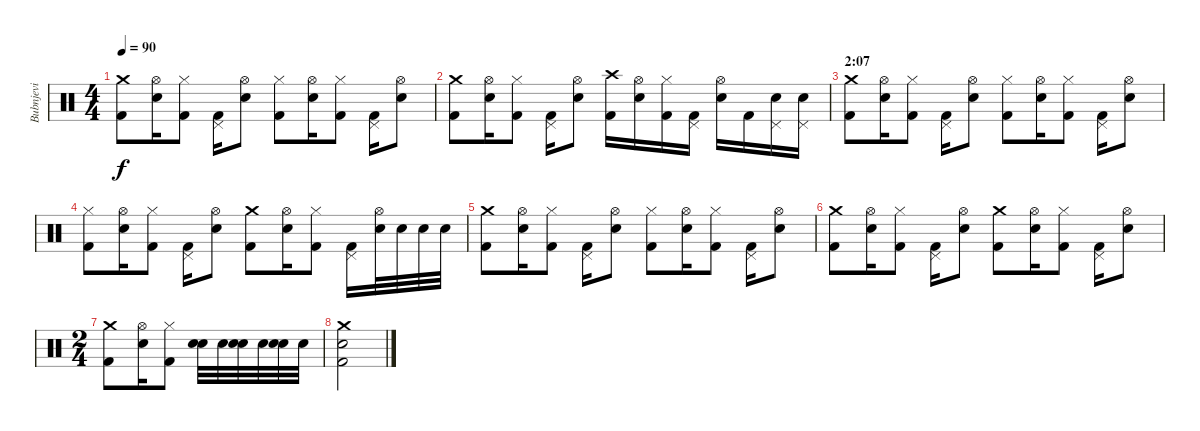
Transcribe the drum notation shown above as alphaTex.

\track ("Bubnjevi" "Bubnjevi") {instrument percussion}
\staff {score}
\articulation defaults
\ts (4 4)
\tempo 90
\clef neutral
\ks c
("Crash medium (hit)" "Kick (hit) 2").8{dy f} ("Hi-Hat (open)" "Snare (hit) 2").16 ("Hi-Hat (closed)" "Kick (hit) 2").8 ("Pedal Hi-Hat (hit)" "Kick (hit) 2").16 ("Hi-Hat (open)" "Snare (hit) 2").8 ("Hi-Hat (closed)" "Kick (hit) 2").8 ("Hi-Hat (open)" "Snare (hit) 2").16 ("Hi-Hat (closed)" "Kick (hit) 2").8 ("Pedal Hi-Hat (hit)" "Kick (hit) 2").16 ("Hi-Hat (open)" "Snare (hit) 2").8 |
("Crash medium (hit)" "Kick (hit) 2").8 ("Hi-Hat (open)" "Snare (hit) 2").16 ("Hi-Hat (closed)" "Kick (hit) 2").8 ("Pedal Hi-Hat (hit)" "Kick (hit) 2").16 ("Hi-Hat (open)" "Snare (hit) 2").8 ("Crash high (hit)" "Kick (hit) 2").16 ("Hi-Hat (open)" "Snare (hit) 2").16 ("Hi-Hat (closed)" "Kick (hit) 2").16 ("Pedal Hi-Hat (hit)" "Kick (hit) 2").16 ("Hi-Hat (open)" "Snare (hit) 2").16 "Kick (hit) 2".16 ("Pedal Hi-Hat (hit)" "Snare (hit) 2").16 ("Pedal Hi-Hat (hit)" "Snare (hit) 2").16 |
\section ("" "2:07")
("Crash medium (hit)" "Kick (hit) 2").8 ("Hi-Hat (open)" "Snare (hit) 2").16 ("Hi-Hat (closed)" "Kick (hit) 2").8 ("Pedal Hi-Hat (hit)" "Kick (hit) 2").16 ("Hi-Hat (open)" "Snare (hit) 2").8 ("Hi-Hat (closed)" "Kick (hit) 2").8 ("Hi-Hat (open)" "Snare (hit) 2").16 ("Hi-Hat (closed)" "Kick (hit) 2").8 ("Pedal Hi-Hat (hit)" "Kick (hit) 2").16 ("Hi-Hat (open)" "Snare (hit) 2").8 |
("Hi-Hat (closed)" "Kick (hit) 2").8 ("Hi-Hat (open)" "Snare (hit) 2").16 ("Hi-Hat (closed)" "Kick (hit) 2").8 ("Pedal Hi-Hat (hit)" "Kick (hit) 2").16 ("Hi-Hat (open)" "Snare (hit) 2").8 ("Crash medium (hit)" "Kick (hit) 2").8 ("Hi-Hat (open)" "Snare (hit) 2").16 ("Hi-Hat (closed)" "Kick (hit) 2").8 ("Pedal Hi-Hat (hit)" "Kick (hit) 2").16 ("Hi-Hat (open)" "Snare (hit) 2").32 "Snare (hit) 2".32 "Snare (hit) 2".32 "Snare (hit) 2".32 |
("Crash medium (hit)" "Kick (hit) 2").8 ("Hi-Hat (open)" "Snare (hit) 2").16 ("Hi-Hat (closed)" "Kick (hit) 2").8 ("Pedal Hi-Hat (hit)" "Kick (hit) 2").16 ("Hi-Hat (open)" "Snare (hit) 2").8 ("Hi-Hat (closed)" "Kick (hit) 2").8 ("Hi-Hat (open)" "Snare (hit) 2").16 ("Hi-Hat (closed)" "Kick (hit) 2").8 ("Pedal Hi-Hat (hit)" "Kick (hit) 2").16 ("Hi-Hat (open)" "Snare (hit) 2").8 |
("Crash medium (hit)" "Kick (hit) 2").8 ("Hi-Hat (open)" "Snare (hit) 2").16 ("Hi-Hat (closed)" "Kick (hit) 2").8 ("Pedal Hi-Hat (hit)" "Kick (hit) 2").16 ("Hi-Hat (open)" "Snare (hit) 2").8 ("Crash medium (hit)" "Kick (hit) 2").8 ("Hi-Hat (open)" "Snare (hit) 2").16 ("Hi-Hat (closed)" "Kick (hit) 2").8 ("Pedal Hi-Hat (hit)" "Kick (hit) 2").16 ("Hi-Hat (open)" "Snare (hit) 2").8 |
\ts (2 4)
("Crash medium (hit)" "Kick (hit) 2").8 ("Hi-Hat (open)" "Snare (hit) 2").16 ("Hi-Hat (closed)" "Kick (hit) 2").8 ("Snare (hit) 2" "Snare (hit) 2").32 "Snare (hit) 2".32 ("Snare (hit) 2" "Snare (hit) 2").32 "Snare (hit) 2".32 ("Snare (hit) 2" "Snare (hit) 2").32 "Snare (hit) 2".32 |
("Crash medium (hit)" "Snare (hit) 2" "Kick (hit) 2").2
